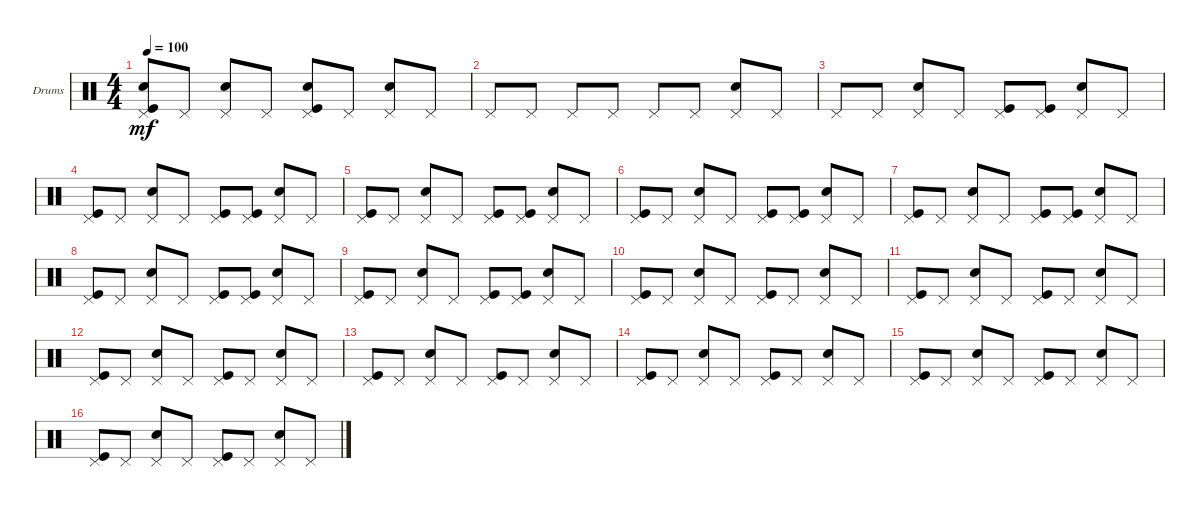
\defaultSystemsLayout 4
\bracketExtendMode groupsimilarinstruments
\firstSystemTrackNameOrientation horizontal
\otherSystemsTrackNameOrientation horizontal
\track ("Drumkit" "Drums") {instrument percussion}
\staff {score}
\articulation defaults
\ts (4 4)
\tempo 100
\clef neutral
\scale
0.333333
\ks c
("Snare (hit) 2" "Kick (hit)" "Pedal Hi-Hat (hit)").8{dy mf} "Pedal Hi-Hat (hit)".8 ("Snare (hit) 2" "Pedal Hi-Hat (hit)").8 "Pedal Hi-Hat (hit)".8 ("Snare (hit) 2" "Kick (hit)" "Pedal Hi-Hat (hit)").8 "Pedal Hi-Hat (hit)".8 ("Snare (hit) 2" "Pedal Hi-Hat (hit)").8 "Pedal Hi-Hat (hit)".8 |
\scale
0.333333 "Pedal Hi-Hat (hit)".8 "Pedal Hi-Hat (hit)".8 "Pedal Hi-Hat (hit)".8 "Pedal Hi-Hat (hit)".8 "Pedal Hi-Hat (hit)".8 "Pedal Hi-Hat (hit)".8 ("Snare (hit) 2" "Pedal Hi-Hat (hit)").8 "Pedal Hi-Hat (hit)".8 |
\scale
0.333333 "Pedal Hi-Hat (hit)".8 "Pedal Hi-Hat (hit)".8 ("Snare (hit) 2" "Pedal Hi-Hat (hit)").8 "Pedal Hi-Hat (hit)".8 ("Pedal Hi-Hat (hit)" "Kick (hit)").8 ("Pedal Hi-Hat (hit)" "Kick (hit)").8 ("Snare (hit) 2" "Pedal Hi-Hat (hit)").8 "Pedal Hi-Hat (hit)".8 |
\scale
0.333333 ("Pedal Hi-Hat (hit)" "Kick (hit)").8 "Pedal Hi-Hat (hit)".8 ("Snare (hit) 2" "Pedal Hi-Hat (hit)").8 "Pedal Hi-Hat (hit)".8 ("Pedal Hi-Hat (hit)" "Kick (hit)").8 ("Pedal Hi-Hat (hit)" "Kick (hit)").8 ("Snare (hit) 2" "Pedal Hi-Hat (hit)").8 "Pedal Hi-Hat (hit)".8 |
\scale
0.333333 ("Pedal Hi-Hat (hit)" "Kick (hit)").8 "Pedal Hi-Hat (hit)".8 ("Snare (hit) 2" "Pedal Hi-Hat (hit)").8 "Pedal Hi-Hat (hit)".8 ("Pedal Hi-Hat (hit)" "Kick (hit)").8 ("Pedal Hi-Hat (hit)" "Kick (hit)").8 ("Snare (hit) 2" "Pedal Hi-Hat (hit)").8 "Pedal Hi-Hat (hit)".8 |
("Pedal Hi-Hat (hit)" "Kick (hit)").8 "Pedal Hi-Hat (hit)".8 ("Snare (hit) 2" "Pedal Hi-Hat (hit)").8 "Pedal Hi-Hat (hit)".8 ("Pedal Hi-Hat (hit)" "Kick (hit)").8 ("Pedal Hi-Hat (hit)" "Kick (hit)").8 ("Snare (hit) 2" "Pedal Hi-Hat (hit)").8 "Pedal Hi-Hat (hit)".8 |
("Pedal Hi-Hat (hit)" "Kick (hit)").8 "Pedal Hi-Hat (hit)".8 ("Snare (hit) 2" "Pedal Hi-Hat (hit)").8 "Pedal Hi-Hat (hit)".8 ("Pedal Hi-Hat (hit)" "Kick (hit)").8 ("Pedal Hi-Hat (hit)" "Kick (hit)").8 ("Snare (hit) 2" "Pedal Hi-Hat (hit)").8 "Pedal Hi-Hat (hit)".8 |
("Pedal Hi-Hat (hit)" "Kick (hit)").8 "Pedal Hi-Hat (hit)".8 ("Snare (hit) 2" "Pedal Hi-Hat (hit)").8 "Pedal Hi-Hat (hit)".8 ("Pedal Hi-Hat (hit)" "Kick (hit)").8 ("Pedal Hi-Hat (hit)" "Kick (hit)").8 ("Snare (hit) 2" "Pedal Hi-Hat (hit)").8 "Pedal Hi-Hat (hit)".8 |
("Pedal Hi-Hat (hit)" "Kick (hit)").8 "Pedal Hi-Hat (hit)".8 ("Snare (hit) 2" "Pedal Hi-Hat (hit)").8 "Pedal Hi-Hat (hit)".8 ("Pedal Hi-Hat (hit)" "Kick (hit)").8 ("Pedal Hi-Hat (hit)" "Kick (hit)").8 ("Snare (hit) 2" "Pedal Hi-Hat (hit)").8 "Pedal Hi-Hat (hit)".8 |
("Pedal Hi-Hat (hit)" "Kick (hit)").8 "Pedal Hi-Hat (hit)".8 ("Snare (hit) 2" "Pedal Hi-Hat (hit)").8 "Pedal Hi-Hat (hit)".8 ("Pedal Hi-Hat (hit)" "Kick (hit)").8 "Pedal Hi-Hat (hit)".8 ("Snare (hit) 2" "Pedal Hi-Hat (hit)").8 "Pedal Hi-Hat (hit)".8 |
("Pedal Hi-Hat (hit)" "Kick (hit)").8 "Pedal Hi-Hat (hit)".8 ("Snare (hit) 2" "Pedal Hi-Hat (hit)").8 "Pedal Hi-Hat (hit)".8 ("Pedal Hi-Hat (hit)" "Kick (hit)").8 "Pedal Hi-Hat (hit)".8 ("Snare (hit) 2" "Pedal Hi-Hat (hit)").8 "Pedal Hi-Hat (hit)".8 |
("Pedal Hi-Hat (hit)" "Kick (hit)").8 "Pedal Hi-Hat (hit)".8 ("Snare (hit) 2" "Pedal Hi-Hat (hit)").8 "Pedal Hi-Hat (hit)".8 ("Pedal Hi-Hat (hit)" "Kick (hit)").8 "Pedal Hi-Hat (hit)".8 ("Snare (hit) 2" "Pedal Hi-Hat (hit)").8 "Pedal Hi-Hat (hit)".8 |
("Pedal Hi-Hat (hit)" "Kick (hit)").8 "Pedal Hi-Hat (hit)".8 ("Snare (hit) 2" "Pedal Hi-Hat (hit)").8 "Pedal Hi-Hat (hit)".8 ("Pedal Hi-Hat (hit)" "Kick (hit)").8 "Pedal Hi-Hat (hit)".8 ("Snare (hit) 2" "Pedal Hi-Hat (hit)").8 "Pedal Hi-Hat (hit)".8 |
("Pedal Hi-Hat (hit)" "Kick (hit)").8 "Pedal Hi-Hat (hit)".8 ("Snare (hit) 2" "Pedal Hi-Hat (hit)").8 "Pedal Hi-Hat (hit)".8 ("Pedal Hi-Hat (hit)" "Kick (hit)").8 "Pedal Hi-Hat (hit)".8 ("Snare (hit) 2" "Pedal Hi-Hat (hit)").8 "Pedal Hi-Hat (hit)".8 |
("Pedal Hi-Hat (hit)" "Kick (hit)").8 "Pedal Hi-Hat (hit)".8 ("Snare (hit) 2" "Pedal Hi-Hat (hit)").8 "Pedal Hi-Hat (hit)".8 ("Pedal Hi-Hat (hit)" "Kick (hit)").8 "Pedal Hi-Hat (hit)".8 ("Snare (hit) 2" "Pedal Hi-Hat (hit)").8 "Pedal Hi-Hat (hit)".8 |
("Pedal Hi-Hat (hit)" "Kick (hit)").8 "Pedal Hi-Hat (hit)".8 ("Snare (hit) 2" "Pedal Hi-Hat (hit)").8 "Pedal Hi-Hat (hit)".8 ("Pedal Hi-Hat (hit)" "Kick (hit)").8 "Pedal Hi-Hat (hit)".8 ("Snare (hit) 2" "Pedal Hi-Hat (hit)").8 "Pedal Hi-Hat (hit)".8
